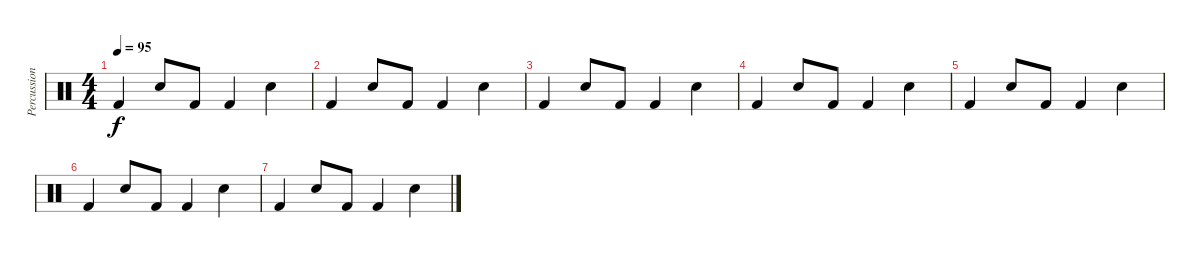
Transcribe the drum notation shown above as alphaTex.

\track ("Percussions" "Percussion") {instrument percussion}
\staff {score}
\articulation defaults
\ts (4 4)
\tempo 95
\clef neutral
\ks c "Kick (hit) 2".4{dy f} "Snare (hit) 2".8 "Kick (hit) 2".8 "Kick (hit) 2".4 "Snare (hit) 2".4
|
"Kick (hit) 2".4 "Snare (hit) 2".8 "Kick (hit) 2".8 "Kick (hit) 2".4 "Snare (hit) 2".4 |
"Kick (hit) 2".4 "Snare (hit) 2".8 "Kick (hit) 2".8 "Kick (hit) 2".4 "Snare (hit) 2".4 |
"Kick (hit) 2".4 "Snare (hit) 2".8 "Kick (hit) 2".8 "Kick (hit) 2".4 "Snare (hit) 2".4 |
"Kick (hit) 2".4 "Snare (hit) 2".8 "Kick (hit) 2".8 "Kick (hit) 2".4 "Snare (hit) 2".4 |
"Kick (hit) 2".4 "Snare (hit) 2".8 "Kick (hit) 2".8 "Kick (hit) 2".4 "Snare (hit) 2".4 |
"Kick (hit) 2".4 "Snare (hit) 2".8 "Kick (hit) 2".8 "Kick (hit) 2".4 "Snare (hit) 2".4
